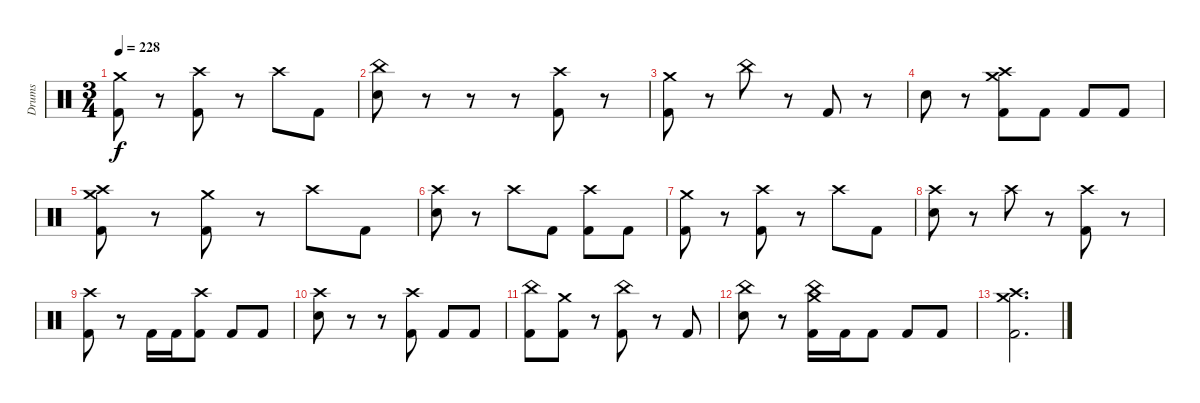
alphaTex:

\track ("Drums" "Drums") {instrument percussion}
\staff {score}
\articulation defaults
\ts (3 4)
\tempo 228
\clef neutral
\ks c
("Crash medium (hit)" "Kick (hit) 2").8{dy f} r.8 ("Crash high (hit)" "Kick (hit) 2").8 r.8 "Crash high (hit)".8 "Kick (hit) 2".8 |
("China (hit)" "Electric Snare (hit)").8 r.8 r.8 r.8 ("Crash high (hit)" "Kick (hit) 2").8 r.8 |
("Crash medium (hit)" "Kick (hit) 2").8 r.8 "China (hit)".8 r.8 "Kick (hit) 2".8 r.8 |
"Electric Snare (hit)".8 r.8 ("Crash medium (hit)" "Crash high (hit)" "Kick (hit) 2").8 "Kick (hit) 2".8 "Kick (hit) 2".8 "Kick (hit) 2".8 |
("Crash high (hit)" "Crash medium (hit)" "Kick (hit) 2").8 r.8 ("Crash medium (hit)" "Kick (hit) 2").8 r.8 "Crash high (hit)".8 "Kick (hit) 2".8 |
("Crash high (hit)" "Electric Snare (hit)").8 r.8 "Crash high (hit)".8 "Kick (hit) 2".8 ("Crash high (hit)" "Kick (hit) 2").8 "Kick (hit) 2".8 |
("Crash medium (hit)" "Kick (hit) 2").8 r.8 ("Crash high (hit)" "Kick (hit) 2").8 r.8 "Crash high (hit)".8 "Kick (hit) 2".8 |
("Crash high (hit)" "Electric Snare (hit)").8 r.8 "Crash high (hit)".8 r.8 ("Crash high (hit)" "Kick (hit) 2").8 r.8 |
("Crash high (hit)" "Kick (hit) 2").8 r.8 "Kick (hit) 2".16 "Kick (hit) 2".16 ("Crash high (hit)" "Kick (hit) 2").8 "Kick (hit) 2".8 "Kick (hit) 2".8 |
("Crash high (hit)" "Electric Snare (hit)").8 r.8 r.8 ("Crash high (hit)" "Kick (hit) 2").8 "Kick (hit) 2".8 "Kick (hit) 2".8 |
("China (hit)" "Kick (hit) 2").8 ("Crash medium (hit)" "Kick (hit) 2").8 r.8 ("China (hit)" "Kick (hit) 2").8 r.8 "Kick (hit) 2".8 |
("China (hit)" "Electric Snare (hit)").8 r.8 ("China (hit)" "Crash medium (hit)" "Kick (hit) 2").16 "Kick (hit) 2".16 "Kick (hit) 2".8 "Kick (hit) 2".8 "Kick (hit) 2".8 |
("Crash medium (hit)" "Crash high (hit)" "Kick (hit) 2").2{d}
